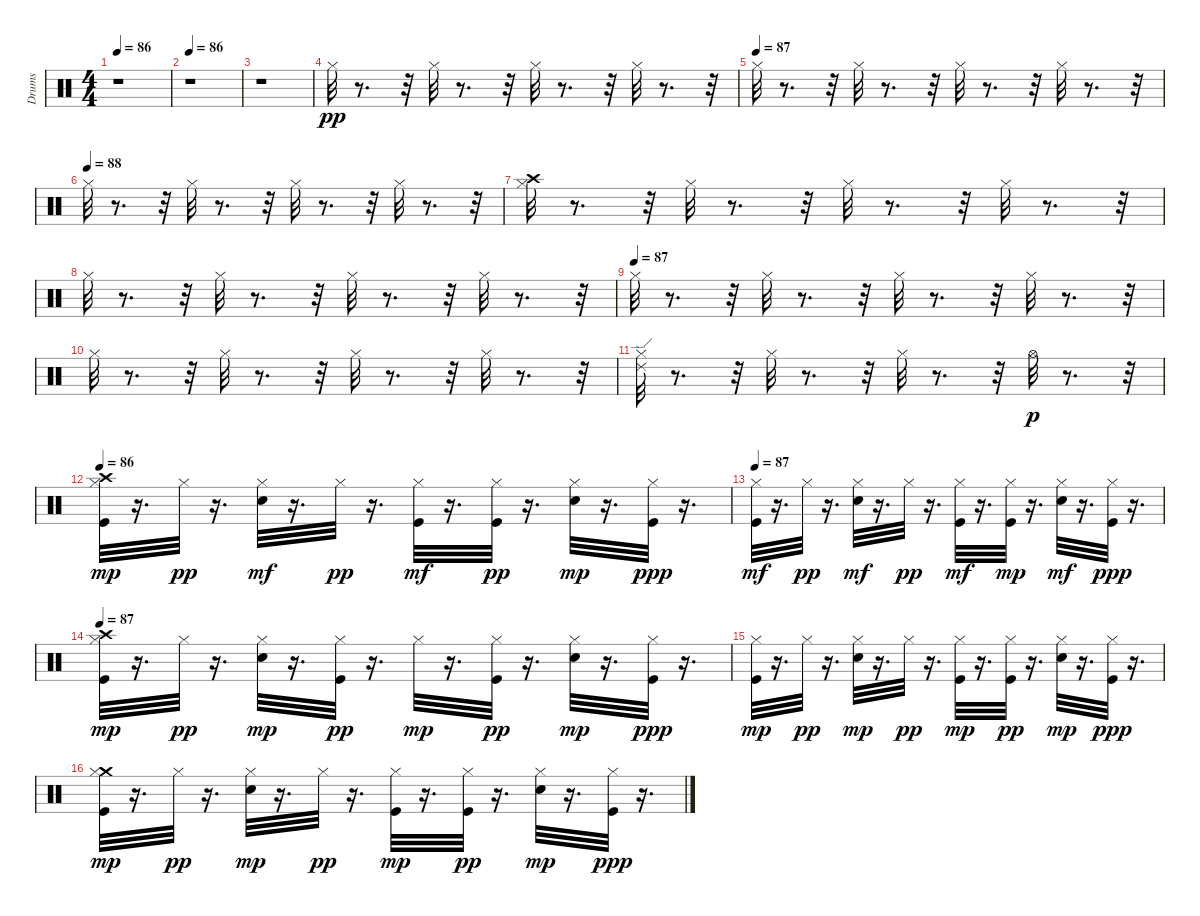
\track ("Drums" "Drums") {instrument percussion}
\staff {score}
\articulation defaults
\ts (4 4)
\tempo 86
\clef neutral
\ks c
r.1{dy pp} |
\tempo 86
r.1 |
r.1 |
"Hi-Hat (closed)".32 r.8{d} r.32 "Hi-Hat (closed)".32 r.8{d} r.32 "Hi-Hat (closed)".32 r.8{d} r.32 "Hi-Hat (closed)".32 r.8{d} r.32 |
\tempo (87)
"Hi-Hat (closed)".32 r.8{d} r.32 "Hi-Hat (closed)".32 r.8{d} r.32 "Hi-Hat (closed)".32 r.8{d} r.32 "Hi-Hat (closed)".32 r.8{d} r.32 |
\tempo (88)
"Hi-Hat (closed)".32 r.8{d} r.32 "Hi-Hat (closed)".32 r.8{d} r.32 "Hi-Hat (closed)".32 r.8{d} r.32 "Hi-Hat (closed)".32 r.8{d} r.32 |
("Crash high (hit)" "Hi-Hat (closed)").32 r.8{d} r.32 "Hi-Hat (closed)".32 r.8{d} r.32 "Hi-Hat (closed)".32 r.8{d} r.32 "Hi-Hat (closed)".32 r.8{d} r.32 |
"Hi-Hat (closed)".32 r.8{d} r.32 "Hi-Hat (closed)".32 r.8{d} r.32 "Hi-Hat (closed)".32 r.8{d} r.32 "Hi-Hat (closed)".32 r.8{d} r.32 |
\tempo (87)
"Hi-Hat (closed)".32 r.8{d} r.32 "Hi-Hat (closed)".32 r.8{d} r.32 "Hi-Hat (closed)".32 r.8{d} r.32 "Hi-Hat (closed)".32 r.8{d} r.32 |
"Hi-Hat (closed)".32 r.8{d} r.32 "Hi-Hat (closed)".32 r.8{d} r.32 "Hi-Hat (closed)".32 r.8{d} r.32 "Hi-Hat (closed)".32 r.8{d} r.32 |
("Ride (edge) 2" "Hi-Hat (closed)").32 r.8{d} r.32 "Hi-Hat (closed)".32 r.8{d} r.32 "Hi-Hat (closed)".32 r.8{d} r.32 "Hi-Hat (open)".32{dy p} r.8{d} r.32 |
\tempo 86
("Crash high (hit)" "Kick (hit)" "Hi-Hat (closed)").32{dy mp} r.16{d} "Hi-Hat (closed)".32{dy pp} r.16{d} ("Hi-Hat (closed)" "Electric Snare (hit)").32{dy mf} r.16{d} "Hi-Hat (closed)".32{dy pp} r.16{d} ("Hi-Hat (closed)" "Kick (hit)").32{dy mf} r.16{d} ("Kick (hit)" "Hi-Hat (closed)").32{dy pp} r.16{d} ("Electric Snare (hit)" "Hi-Hat (closed)").32{dy mp} r.16{d} ("Hi-Hat (closed)" "Kick (hit)").32{dy ppp} r.16{d} |
\tempo 87
("Hi-Hat (closed)" "Kick (hit)").32{dy mf} r.16{d} "Hi-Hat (closed)".32{dy pp} r.16{d} ("Hi-Hat (closed)" "Electric Snare (hit)").32{dy mf} r.16{d} "Hi-Hat (closed)".32{dy pp} r.16{d} ("Hi-Hat (closed)" "Kick (hit)").32{dy mf} r.16{d} ("Hi-Hat (closed)" "Kick (hit)").32{dy mp} r.16{d} ("Hi-Hat (closed)" "Electric Snare (hit)").32{dy mf} r.16{d} ("Hi-Hat (closed)" "Kick (hit)").32{dy ppp} r.16{d} |
\tempo 87
("Kick (hit)" "Crash high (hit)" "Hi-Hat (closed)").32{dy mp} r.16{d} "Hi-Hat (closed)".32{dy pp} r.16{d} ("Electric Snare (hit)" "Hi-Hat (closed)").32{dy mp} r.16{d} ("Kick (hit)" "Hi-Hat (closed)").32{dy pp} r.16{d} "Hi-Hat (closed)".32{dy mp} r.16{d} ("Kick (hit)" "Hi-Hat (closed)").32{dy pp} r.16{d} ("Electric Snare (hit)" "Hi-Hat (closed)").32{dy mp} r.16{d} ("Kick (hit)" "Hi-Hat (closed)").32{dy ppp} r.16{d} |
("Kick (hit)" "Hi-Hat (closed)").32{dy mp} r.16{d} "Hi-Hat (closed)".32{dy pp} r.16{d} ("Electric Snare (hit)" "Hi-Hat (closed)").32{dy mp} r.16{d} "Hi-Hat (closed)".32{dy pp} r.16{d} ("Kick (hit)" "Hi-Hat (closed)").32{dy mp} r.16{d} ("Kick (hit)" "Hi-Hat (closed)").32{dy pp} r.16{d} ("Electric Snare (hit)" "Hi-Hat (closed)").32{dy mp} r.16{d} ("Kick (hit)" "Hi-Hat (closed)").32{dy ppp} r.16{d} |
("Kick (hit)" "Crash medium (hit)" "Hi-Hat (closed)").32{dy mp} r.16{d} "Hi-Hat (closed)".32{dy pp} r.16{d} ("Electric Snare (hit)" "Hi-Hat (closed)").32{dy mp} r.16{d} "Hi-Hat (closed)".32{dy pp} r.16{d} ("Kick (hit)" "Hi-Hat (closed)").32{dy mp} r.16{d} ("Kick (hit)" "Hi-Hat (closed)").32{dy pp} r.16{d} ("Electric Snare (hit)" "Hi-Hat (closed)").32{dy mp} r.16{d} ("Kick (hit)" "Hi-Hat (closed)").32{dy ppp} r.16{d}
